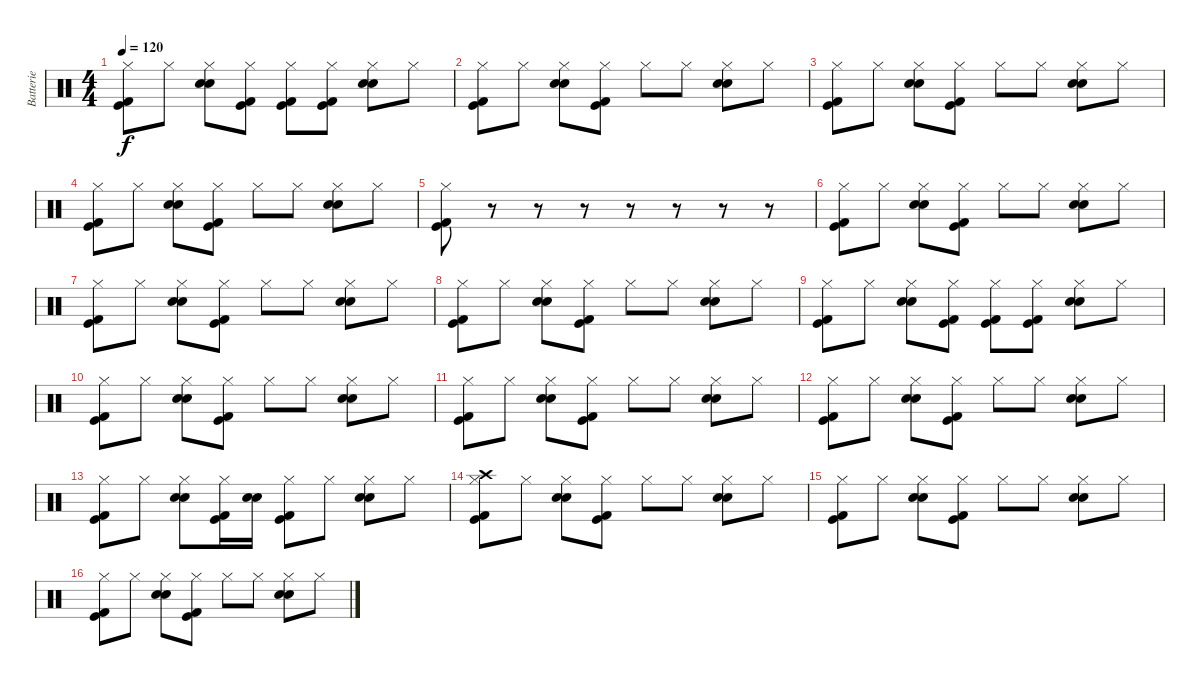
\track ("Batterie" "Batterie") {instrument percussion}
\staff {score}
\articulation defaults
\ts (4 4)
\tempo 120
\clef neutral
\ks c
("Hi-Hat (closed)" "Kick (hit)" "Kick (hit) 2").8{dy f} "Hi-Hat (closed)".8 ("Hi-Hat (closed)" "Electric Snare (hit)" "Electric Snare (hit)").8 ("Hi-Hat (closed)" "Kick (hit)" "Kick (hit) 2").8 ("Hi-Hat (closed)" "Kick (hit)" "Kick (hit) 2").8 ("Hi-Hat (closed)" "Kick (hit)" "Kick (hit) 2").8 ("Hi-Hat (closed)" "Electric Snare (hit)" "Electric Snare (hit)").8 "Hi-Hat (closed)".8 |
("Hi-Hat (closed)" "Kick (hit)" "Kick (hit) 2").8 "Hi-Hat (closed)".8 ("Hi-Hat (closed)" "Electric Snare (hit)" "Electric Snare (hit)").8 ("Hi-Hat (closed)" "Kick (hit)" "Kick (hit) 2").8 "Hi-Hat (closed)".8 "Hi-Hat (closed)".8 ("Hi-Hat (closed)" "Electric Snare (hit)" "Electric Snare (hit)").8 "Hi-Hat (closed)".8 |
("Hi-Hat (closed)" "Kick (hit)" "Kick (hit) 2").8 "Hi-Hat (closed)".8 ("Hi-Hat (closed)" "Electric Snare (hit)" "Electric Snare (hit)").8 ("Hi-Hat (closed)" "Kick (hit)" "Kick (hit) 2").8 "Hi-Hat (closed)".8 "Hi-Hat (closed)".8 ("Hi-Hat (closed)" "Electric Snare (hit)" "Electric Snare (hit)").8 "Hi-Hat (closed)".8 |
("Hi-Hat (closed)" "Kick (hit)" "Kick (hit) 2").8 "Hi-Hat (closed)".8 ("Hi-Hat (closed)" "Electric Snare (hit)" "Electric Snare (hit)").8 ("Hi-Hat (closed)" "Kick (hit)" "Kick (hit) 2").8 "Hi-Hat (closed)".8 "Hi-Hat (closed)".8 ("Hi-Hat (closed)" "Electric Snare (hit)" "Electric Snare (hit)").8 "Hi-Hat (closed)".8 |
("Hi-Hat (closed)" "Kick (hit)" "Kick (hit) 2").8 r.8 r.8 r.8 r.8 r.8 r.8 r.8 |
("Hi-Hat (closed)" "Kick (hit)" "Kick (hit) 2").8 "Hi-Hat (closed)".8 ("Hi-Hat (closed)" "Electric Snare (hit)" "Electric Snare (hit)").8 ("Hi-Hat (closed)" "Kick (hit)" "Kick (hit) 2").8 "Hi-Hat (closed)".8 "Hi-Hat (closed)".8 ("Hi-Hat (closed)" "Electric Snare (hit)" "Electric Snare (hit)").8 "Hi-Hat (closed)".8 |
("Hi-Hat (closed)" "Kick (hit)" "Kick (hit) 2").8 "Hi-Hat (closed)".8 ("Hi-Hat (closed)" "Electric Snare (hit)" "Electric Snare (hit)").8 ("Hi-Hat (closed)" "Kick (hit)" "Kick (hit) 2").8 "Hi-Hat (closed)".8 "Hi-Hat (closed)".8 ("Hi-Hat (closed)" "Electric Snare (hit)" "Electric Snare (hit)").8 "Hi-Hat (closed)".8 |
("Hi-Hat (closed)" "Kick (hit)" "Kick (hit) 2").8 "Hi-Hat (closed)".8 ("Hi-Hat (closed)" "Electric Snare (hit)" "Electric Snare (hit)").8 ("Hi-Hat (closed)" "Kick (hit)" "Kick (hit) 2").8 "Hi-Hat (closed)".8 "Hi-Hat (closed)".8 ("Hi-Hat (closed)" "Electric Snare (hit)" "Electric Snare (hit)").8 "Hi-Hat (closed)".8 |
("Hi-Hat (closed)" "Kick (hit)" "Kick (hit) 2").8 "Hi-Hat (closed)".8 ("Hi-Hat (closed)" "Electric Snare (hit)" "Electric Snare (hit)").8 ("Hi-Hat (closed)" "Kick (hit)" "Kick (hit) 2").8 ("Hi-Hat (closed)" "Kick (hit)" "Kick (hit) 2").8 ("Hi-Hat (closed)" "Kick (hit)" "Kick (hit) 2").8 ("Hi-Hat (closed)" "Electric Snare (hit)" "Electric Snare (hit)").8 "Hi-Hat (closed)".8 |
("Hi-Hat (closed)" "Kick (hit)" "Kick (hit) 2").8 "Hi-Hat (closed)".8 ("Hi-Hat (closed)" "Electric Snare (hit)" "Electric Snare (hit)").8 ("Hi-Hat (closed)" "Kick (hit)" "Kick (hit) 2").8 "Hi-Hat (closed)".8 "Hi-Hat (closed)".8 ("Hi-Hat (closed)" "Electric Snare (hit)" "Electric Snare (hit)").8 "Hi-Hat (closed)".8 |
("Hi-Hat (closed)" "Kick (hit)" "Kick (hit) 2").8 "Hi-Hat (closed)".8 ("Hi-Hat (closed)" "Electric Snare (hit)" "Electric Snare (hit)").8 ("Hi-Hat (closed)" "Kick (hit)" "Kick (hit) 2").8 "Hi-Hat (closed)".8 "Hi-Hat (closed)".8 ("Hi-Hat (closed)" "Electric Snare (hit)" "Electric Snare (hit)").8 "Hi-Hat (closed)".8 |
("Hi-Hat (closed)" "Kick (hit)" "Kick (hit) 2").8 "Hi-Hat (closed)".8 ("Hi-Hat (closed)" "Electric Snare (hit)" "Electric Snare (hit)").8 ("Hi-Hat (closed)" "Kick (hit)" "Kick (hit) 2").8 "Hi-Hat (closed)".8 "Hi-Hat (closed)".8 ("Hi-Hat (closed)" "Electric Snare (hit)" "Electric Snare (hit)").8 "Hi-Hat (closed)".8 |
("Hi-Hat (closed)" "Kick (hit)" "Kick (hit) 2").8 "Hi-Hat (closed)".8 ("Hi-Hat (closed)" "Electric Snare (hit)" "Electric Snare (hit)").8 ("Hi-Hat (closed)" "Kick (hit)" "Kick (hit) 2").16 ("Electric Snare (hit)" "Electric Snare (hit)").16 ("Hi-Hat (closed)" "Kick (hit)" "Kick (hit) 2").8 "Hi-Hat (closed)".8 ("Hi-Hat (closed)" "Electric Snare (hit)" "Electric Snare (hit)").8 "Hi-Hat (closed)".8 |
("Crash high (hit)" "Hi-Hat (closed)" "Kick (hit)" "Kick (hit) 2").8 "Hi-Hat (closed)".8 ("Hi-Hat (closed)" "Electric Snare (hit)" "Electric Snare (hit)").8 ("Hi-Hat (closed)" "Kick (hit)" "Kick (hit) 2").8 "Hi-Hat (closed)".8 "Hi-Hat (closed)".8 ("Hi-Hat (closed)" "Electric Snare (hit)" "Electric Snare (hit)").8 "Hi-Hat (closed)".8 |
("Hi-Hat (closed)" "Kick (hit)" "Kick (hit) 2").8 "Hi-Hat (closed)".8 ("Hi-Hat (closed)" "Electric Snare (hit)" "Electric Snare (hit)").8 ("Hi-Hat (closed)" "Kick (hit)" "Kick (hit) 2").8 "Hi-Hat (closed)".8 "Hi-Hat (closed)".8 ("Hi-Hat (closed)" "Electric Snare (hit)" "Electric Snare (hit)").8 "Hi-Hat (closed)".8 |
("Hi-Hat (closed)" "Kick (hit)" "Kick (hit) 2").8 "Hi-Hat (closed)".8 ("Hi-Hat (closed)" "Electric Snare (hit)" "Electric Snare (hit)").8 ("Hi-Hat (closed)" "Kick (hit)" "Kick (hit) 2").8 "Hi-Hat (closed)".8 "Hi-Hat (closed)".8 ("Hi-Hat (closed)" "Electric Snare (hit)" "Electric Snare (hit)").8 "Hi-Hat (closed)".8
